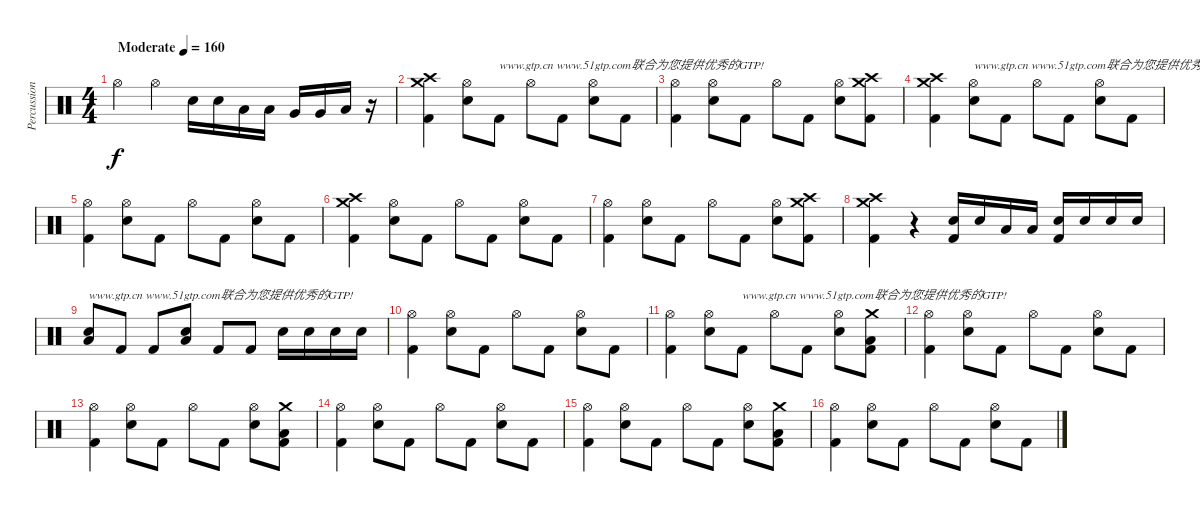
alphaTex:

\track ("Percussion" "Percussion") {instrument percussion}
\staff {score}
\articulation defaults
\ts (4 4)
\tempo (160 "Moderate")
\clef neutral
\ks c "Hi-Hat (open)".4{dy f} "Hi-Hat (open)".4 "Electric Snare (hit)".16 "Electric Snare (hit)".16 "Low Tom (hit)".16 "Low Tom (hit)".16 "Very Low Tom (hit)".16 "Very Low Tom (hit)".16 "Low Floor Tom (hit)".16
r.16 |
("Crash medium (hit)" "Crash high (hit)" "Kick (hit) 2").4 ("Hi-Hat (open)" "Electric Snare (hit)").8 "Kick (hit) 2".8{txt "www.gtp.cn www.51gtp.com联合为您提供优秀的GTP!"} "Hi-Hat (open)".8 "Kick (hit) 2".8 ("Hi-Hat (open)" "Electric Snare (hit)").8 "Kick (hit) 2".8 |
("Hi-Hat (open)" "Kick (hit) 2").4 ("Hi-Hat (open)" "Electric Snare (hit)").8 "Kick (hit) 2".8 "Hi-Hat (open)".8 "Kick (hit) 2".8 ("Hi-Hat (open)" "Electric Snare (hit)").8 ("Crash medium (hit)" "Crash high (hit)" "Kick (hit) 2").8 |
("Crash medium (hit)" "Crash high (hit)" "Kick (hit) 2").4 ("Hi-Hat (open)" "Electric Snare (hit)").8{txt "www.gtp.cn www.51gtp.com联合为您提供优秀的GTP!"} "Kick (hit) 2".8 "Hi-Hat (open)".8 "Kick (hit) 2".8 ("Hi-Hat (open)" "Electric Snare (hit)").8 "Kick (hit) 2".8 |
("Hi-Hat (open)" "Kick (hit) 2").4 ("Hi-Hat (open)" "Electric Snare (hit)").8 "Kick (hit) 2".8 "Hi-Hat (open)".8 "Kick (hit) 2".8 ("Hi-Hat (open)" "Electric Snare (hit)").8 "Kick (hit) 2".8 |
("Crash medium (hit)" "Crash high (hit)" "Kick (hit) 2").4 ("Hi-Hat (open)" "Electric Snare (hit)").8 "Kick (hit) 2".8 "Hi-Hat (open)".8 "Kick (hit) 2".8 ("Hi-Hat (open)" "Electric Snare (hit)").8 "Kick (hit) 2".8 |
("Hi-Hat (open)" "Kick (hit) 2").4 ("Hi-Hat (open)" "Electric Snare (hit)").8 "Kick (hit) 2".8 "Hi-Hat (open)".8 "Kick (hit) 2".8 ("Hi-Hat (open)" "Electric Snare (hit)").8 ("Crash medium (hit)" "Crash high (hit)" "Kick (hit) 2").8 |
("Crash medium (hit)" "Crash high (hit)" "Kick (hit) 2").4 r.4 ("Electric Snare (hit)" "Kick (hit) 2").16 "Electric Snare (hit)".16 "Low Tom (hit)".16 "Low Tom (hit)".16 ("Electric Snare (hit)" "Kick (hit) 2").16 "Electric Snare (hit)".16 "Electric Snare (hit)".16 "Electric Snare (hit)".16 |
("Electric Snare (hit)" "Low Floor Tom (hit)").8{txt "www.gtp.cn www.51gtp.com联合为您提供优秀的GTP!"} "Kick (hit) 2".8 "Kick (hit) 2".8 ("Electric Snare (hit)" "Low Floor Tom (hit)").8 "Kick (hit) 2".8 "Kick (hit) 2".8 "Electric Snare (hit)".16 "Electric Snare (hit)".16 "Electric Snare (hit)".16 "Electric Snare (hit)".16 |
("Hi-Hat (open)" "Kick (hit) 2").4 ("Hi-Hat (open)" "Electric Snare (hit)").8 "Kick (hit) 2".8 "Hi-Hat (open)".8 "Kick (hit) 2".8 ("Hi-Hat (open)" "Electric Snare (hit)").8 "Kick (hit) 2".8 |
("Hi-Hat (open)" "Kick (hit) 2").4 ("Hi-Hat (open)" "Electric Snare (hit)").8 "Kick (hit) 2".8{txt "www.gtp.cn www.51gtp.com联合为您提供优秀的GTP!"} "Hi-Hat (open)".8 "Kick (hit) 2".8 ("Hi-Hat (open)" "Electric Snare (hit)").8 ("Crash medium (hit)" "Low Floor Tom (hit)" "Kick (hit) 2").8 |
("Hi-Hat (open)" "Kick (hit) 2").4 ("Hi-Hat (open)" "Electric Snare (hit)").8 "Kick (hit) 2".8 "Hi-Hat (open)".8 "Kick (hit) 2".8 ("Hi-Hat (open)" "Electric Snare (hit)").8 "Kick (hit) 2".8 |
("Hi-Hat (open)" "Kick (hit) 2").4 ("Hi-Hat (open)" "Electric Snare (hit)").8 "Kick (hit) 2".8 "Hi-Hat (open)".8 "Kick (hit) 2".8 ("Hi-Hat (open)" "Electric Snare (hit)").8 ("Crash medium (hit)" "Low Floor Tom (hit)" "Kick (hit) 2").8 |
("Hi-Hat (open)" "Kick (hit) 2").4 ("Hi-Hat (open)" "Electric Snare (hit)").8 "Kick (hit) 2".8 "Hi-Hat (open)".8 "Kick (hit) 2".8 ("Hi-Hat (open)" "Electric Snare (hit)").8 "Kick (hit) 2".8 |
("Hi-Hat (open)" "Kick (hit) 2").4 ("Hi-Hat (open)" "Electric Snare (hit)").8 "Kick (hit) 2".8 "Hi-Hat (open)".8 "Kick (hit) 2".8 ("Hi-Hat (open)" "Electric Snare (hit)").8 ("Crash medium (hit)" "Low Floor Tom (hit)" "Kick (hit) 2").8 |
("Hi-Hat (open)" "Kick (hit) 2").4 ("Hi-Hat (open)" "Electric Snare (hit)").8 "Kick (hit) 2".8 "Hi-Hat (open)".8 "Kick (hit) 2".8 ("Hi-Hat (open)" "Electric Snare (hit)").8 "Kick (hit) 2".8
